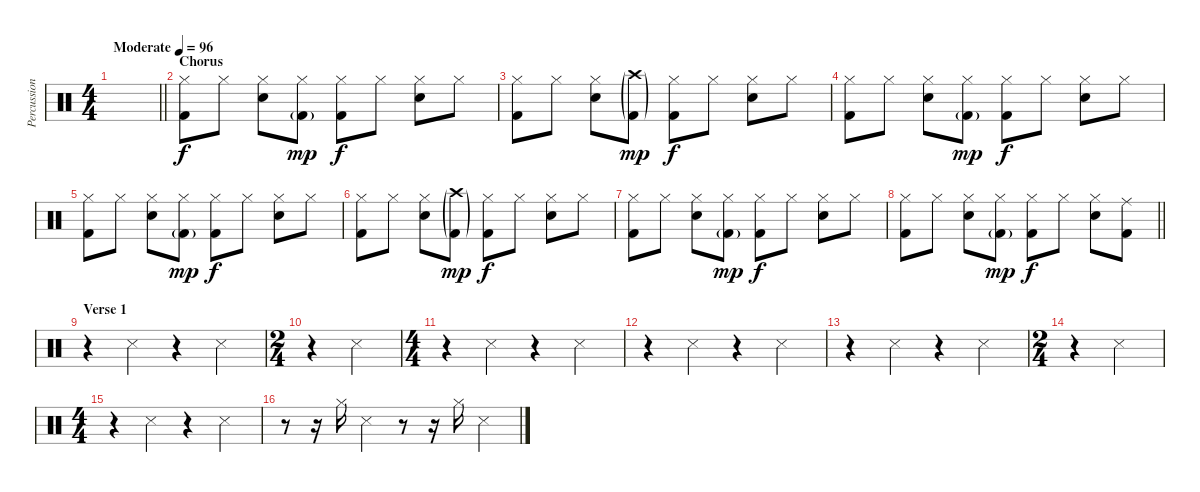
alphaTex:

\track ("Percussion" "Percussion") {instrument percussion}
\staff {score}
\articulation defaults
\ts (4 4)
\tempo (96 "Moderate")
\clef neutral
\barLineRight lightlight
\ks c
|
\section ("" "Chorus")
("Hi-Hat (closed)" "Kick (hit) 2").8 "Hi-Hat (closed)".8 ("Hi-Hat (closed)" "Snare (hit) 2").8 ("Hi-Hat (closed)" "Kick (hit) 2"{g}).8{dy mp} ("Hi-Hat (closed)" "Kick (hit) 2").8{dy f} "Hi-Hat (closed)".8 ("Hi-Hat (closed)" "Snare (hit) 2").8 "Hi-Hat (closed)".8 |
("Hi-Hat (closed)" "Kick (hit) 2").8 "Hi-Hat (closed)".8 ("Hi-Hat (closed)" "Snare (hit) 2").8 ("Crash high (hit)"{g} "Kick (hit) 2"{g}).8{dy mp} ("Hi-Hat (closed)" "Kick (hit) 2").8{dy f} "Hi-Hat (closed)".8 ("Hi-Hat (closed)" "Snare (hit) 2").8 "Hi-Hat (closed)".8 |
("Hi-Hat (closed)" "Kick (hit) 2").8 "Hi-Hat (closed)".8 ("Hi-Hat (closed)" "Snare (hit) 2").8 ("Hi-Hat (closed)" "Kick (hit) 2"{g}).8{dy mp} ("Hi-Hat (closed)" "Kick (hit) 2").8{dy f} "Hi-Hat (closed)".8 ("Hi-Hat (closed)" "Snare (hit) 2").8 "Hi-Hat (closed)".8 |
("Hi-Hat (closed)" "Kick (hit) 2").8 "Hi-Hat (closed)".8 ("Hi-Hat (closed)" "Snare (hit) 2").8 ("Hi-Hat (closed)" "Kick (hit) 2"{g}).8{dy mp} ("Hi-Hat (closed)" "Kick (hit) 2").8{dy f} "Hi-Hat (closed)".8 ("Hi-Hat (closed)" "Snare (hit) 2").8 "Hi-Hat (closed)".8 |
("Hi-Hat (closed)" "Kick (hit) 2").8 "Hi-Hat (closed)".8 ("Hi-Hat (closed)" "Snare (hit) 2").8 ("Crash high (hit)"{g} "Kick (hit) 2"{g}).8{dy mp} ("Hi-Hat (closed)" "Kick (hit) 2").8{dy f} "Hi-Hat (closed)".8 ("Hi-Hat (closed)" "Snare (hit) 2").8 "Hi-Hat (closed)".8 |
("Hi-Hat (closed)" "Kick (hit) 2").8 "Hi-Hat (closed)".8 ("Hi-Hat (closed)" "Snare (hit) 2").8 ("Hi-Hat (closed)" "Kick (hit) 2"{g}).8{dy mp} ("Hi-Hat (closed)" "Kick (hit) 2").8{dy f} "Hi-Hat (closed)".8 ("Hi-Hat (closed)" "Snare (hit) 2").8 "Hi-Hat (closed)".8 |
\barLineRight lightlight
("Hi-Hat (closed)" "Kick (hit) 2").8 "Hi-Hat (closed)".8 ("Hi-Hat (closed)" "Snare (hit) 2").8 ("Hi-Hat (closed)" "Kick (hit) 2"{g}).8{dy mp} ("Hi-Hat (closed)" "Kick (hit) 2").8{dy f} "Hi-Hat (closed)".8 ("Hi-Hat (closed)" "Snare (hit) 2").8 ("Ride (middle)" "Kick (hit) 2").8 |
\section ("" "Verse 1")
r.4 "Snare (side stick) 3".4 r.4 "Snare (side stick) 3".4 |
\ts (2 4)
r.4 "Snare (side stick) 3".4 |
\ts (4 4)
r.4 "Snare (side stick) 3".4 r.4 "Snare (side stick) 3".4 |
r.4 "Snare (side stick) 3".4 r.4 "Snare (side stick) 3".4 |
r.4 "Snare (side stick) 3".4 r.4 "Snare (side stick) 3".4 |
\ts (2 4)
r.4 "Snare (side stick) 3".4 |
\ts (4 4)
r.4 "Snare (side stick) 3".4 r.4 "Snare (side stick) 3".4 |
r.8 r.16 "Hi-Hat (closed)".16 "Snare (side stick) 3".4 r.8 r.16 "Hi-Hat (closed)".16 "Snare (side stick) 3".4
